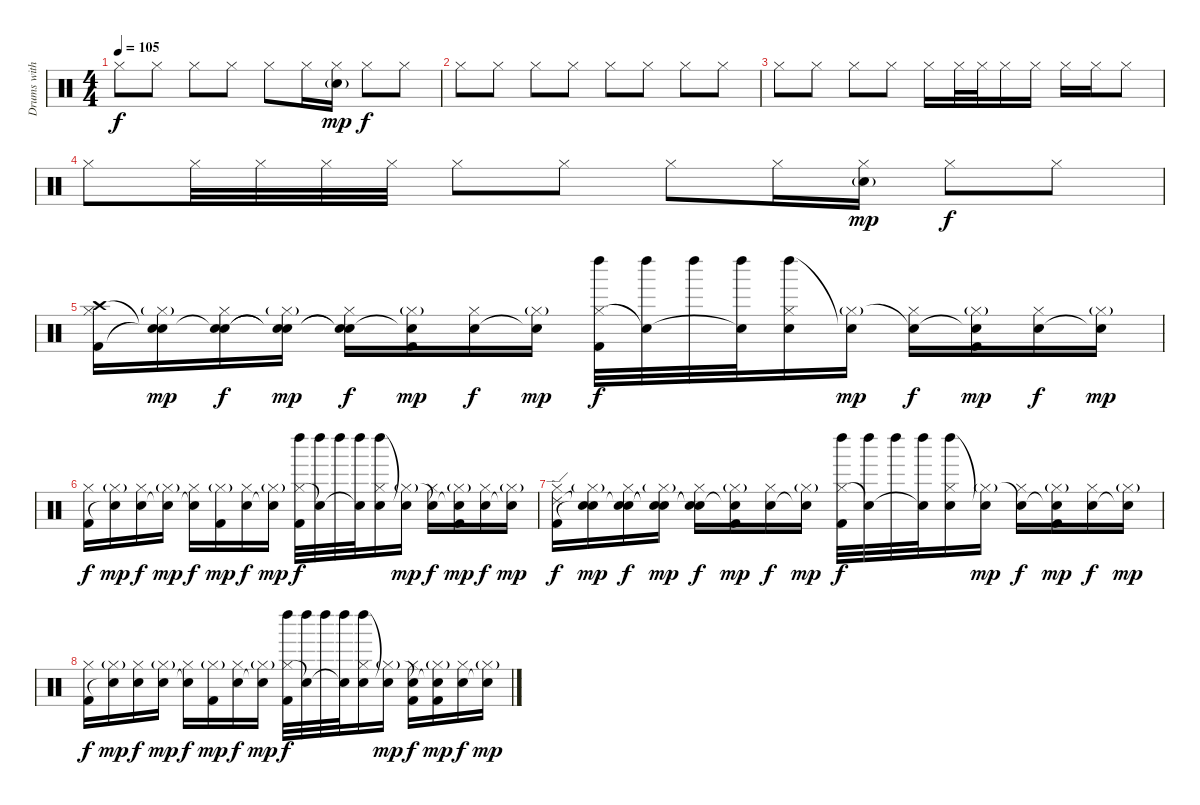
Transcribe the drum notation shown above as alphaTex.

\track ("Drums with sampled drums (Rob and Joe)" "Drums with") {instrument percussion}
\staff {score}
\articulation defaults
\ts (4 4)
\tempo 105
\clef neutral
\ks c "Hi-Hat (closed)".8{dy f} "Hi-Hat (closed)".8 "Hi-Hat (closed)".8 "Hi-Hat (closed)".8 "Hi-Hat (closed)".8 "Hi-Hat (closed)".16
("Metronome (bell)"{g} "Hi-Hat (closed)").16{dy mp} "Hi-Hat (closed)".8{dy f} "Hi-Hat (closed)".8 |
"Hi-Hat (closed)".8 "Hi-Hat (closed)".8 "Hi-Hat (closed)".8 "Hi-Hat (closed)".8 "Hi-Hat (closed)".8 "Hi-Hat (closed)".8 "Hi-Hat (closed)".8 "Hi-Hat (closed)".8 |
"Hi-Hat (closed)".8 "Hi-Hat (closed)".8 "Hi-Hat (closed)".8 "Hi-Hat (closed)".8 "Hi-Hat (closed)".16 "Hi-Hat (closed)".32 "Hi-Hat (closed)".32 "Hi-Hat (closed)".16 "Hi-Hat (closed)".16 "Hi-Hat (closed)".16 "Hi-Hat (closed)".16 "Hi-Hat (closed)".8 |
"Hi-Hat (closed)".8 "Hi-Hat (closed)".32 "Hi-Hat (closed)".32 "Hi-Hat (closed)".32 "Hi-Hat (closed)".32 "Hi-Hat (closed)".8 "Hi-Hat (closed)".8 "Hi-Hat (closed)".8 "Hi-Hat (closed)".16 ("Metronome (bell)"{g} "Hi-Hat (closed)").16{dy mp} "Hi-Hat (closed)".8{dy f} "Hi-Hat (closed)".8 |
("Crash high (hit)" "Hi-Hat (closed)" "Kick (hit) 2").16 ("Snare (hit)"{t} "Hi-Hat (closed)"{g} "Snare (hit)"{t}).16{dy mp} ("Snare (hit)"{t} "Hi-Hat (closed)" "Electric Snare (hit)").16{dy f} ("Snare (hit)"{t} "Hi-Hat (closed)"{g} "Snare (hit)"{t}).16{dy mp} ("Snare (hit)"{t} "Hi-Hat (closed)" "Snare (hit)"{t}).16{dy f} ("Snare (hit)"{t} "Hi-Hat (closed)"{g} "Kick (hit) 2").16{dy mp} ("Hi-Hat (closed)" "Electric Snare (hit)").16{dy f} ("Hi-Hat (closed)"{g} "Snare (hit)"{t}).16{dy mp} ("Left Maraca (hit)" "Hi-Hat (closed)" "Kick (hit) 2").32{dy f} ("Left Maraca (hit)" "Snare (hit)"{t}).32 "Left Maraca (hit)".32 ("Left Maraca (hit)" "Snare (hit)"{t}).32 ("Left Maraca (hit)" "Hi-Hat (closed)" "Electric Snare (hit)").16 ("Snare (hit)"{t} "Hi-Hat (closed)"{g}).16{dy mp} ("Hi-Hat (closed)" "Snare (hit)"{t}).16{dy f} ("Hi-Hat (closed)"{g} "Snare (hit)"{t} "Kick (hit) 2").16{dy mp} ("Hi-Hat (closed)" "Electric Snare (hit)").16{dy f} ("Hi-Hat (closed)"{g} "Snare (hit)"{t}).16{dy mp} |
("Hi-Hat (closed)" "Kick (hit) 2").16{dy f} ("Hi-Hat (closed)"{g} "Snare (hit)"{t}).16{dy mp} ("Hi-Hat (closed)" "Electric Snare (hit)").16{dy f} ("Hi-Hat (closed)"{g} "Snare (hit)"{t}).16{dy mp} ("Hi-Hat (closed)" "Snare (hit)"{t}).16{dy f} ("Hi-Hat (closed)"{g} "Kick (hit) 2").16{dy mp} ("Hi-Hat (closed)" "Electric Snare (hit)").16{dy f} ("Hi-Hat (closed)"{g} "Snare (hit)"{t}).16{dy mp} ("Left Maraca (hit)" "Hi-Hat (closed)" "Kick (hit) 2").32{dy f} ("Left Maraca (hit)" "Snare (hit)"{t}).32 "Left Maraca (hit)".32 ("Left Maraca (hit)" "Snare (hit)"{t}).32 ("Left Maraca (hit)" "Hi-Hat (closed)" "Electric Snare (hit)").16 ("Snare (hit)"{t} "Hi-Hat (closed)"{g}).16{dy mp} ("Hi-Hat (closed)" "Snare (hit)"{t}).16{dy f} ("Hi-Hat (closed)"{g} "Snare (hit)"{t} "Kick (hit) 2").16{dy mp} ("Hi-Hat (closed)" "Electric Snare (hit)").16{dy f} ("Hi-Hat (closed)"{g} "Snare (hit)"{t}).16{dy mp} |
("Ride (edge) 2" "Hi-Hat (closed)" "Kick (hit) 2").16{dy f} ("Snare (hit)"{t} "Hi-Hat (closed)"{g} "Snare (hit)"{t}).16{dy mp} ("Snare (hit)"{t} "Hi-Hat (closed)" "Electric Snare (hit)").16{dy f} ("Snare (hit)"{t} "Hi-Hat (closed)"{g} "Snare (hit)"{t}).16{dy mp} ("Snare (hit)"{t} "Hi-Hat (closed)" "Snare (hit)"{t}).16{dy f} ("Snare (hit)"{t} "Hi-Hat (closed)"{g} "Kick (hit) 2").16{dy mp} ("Hi-Hat (closed)" "Electric Snare (hit)").16{dy f} ("Hi-Hat (closed)"{g} "Snare (hit)"{t}).16{dy mp} ("Left Maraca (hit)" "Hi-Hat (closed)" "Kick (hit) 2").32{dy f} ("Left Maraca (hit)" "Snare (hit)"{t}).32 "Left Maraca (hit)".32 ("Left Maraca (hit)" "Snare (hit)"{t}).32 ("Left Maraca (hit)" "Hi-Hat (closed)" "Electric Snare (hit)").16 ("Snare (hit)"{t} "Hi-Hat (closed)"{g}).16{dy mp} ("Hi-Hat (closed)" "Snare (hit)"{t}).16{dy f} ("Hi-Hat (closed)"{g} "Snare (hit)"{t} "Kick (hit) 2").16{dy mp} ("Hi-Hat (closed)" "Electric Snare (hit)").16{dy f} ("Hi-Hat (closed)"{g} "Snare (hit)"{t}).16{dy mp} |
("Hi-Hat (closed)" "Kick (hit) 2").16{dy f} ("Hi-Hat (closed)"{g} "Snare (hit)"{t}).16{dy mp} ("Hi-Hat (closed)" "Electric Snare (hit)").16{dy f} ("Hi-Hat (closed)"{g} "Electric Snare (hit)").16{dy mp} ("Hi-Hat (closed)" "Snare (hit)"{t}).16{dy f} ("Hi-Hat (closed)"{g} "Kick (hit) 2").16{dy mp} ("Hi-Hat (closed)" "Electric Snare (hit)").16{dy f} ("Hi-Hat (closed)"{g} "Snare (hit)"{t}).16{dy mp} ("Left Maraca (hit)" "Hi-Hat (closed)" "Kick (hit) 2").32{dy f} ("Left Maraca (hit)" "Snare (hit)"{t}).32 "Left Maraca (hit)".32 ("Left Maraca (hit)" "Snare (hit)"{t}).32 ("Left Maraca (hit)" "Hi-Hat (closed)" "Electric Snare (hit)").16 ("Snare (hit)"{t} "Hi-Hat (closed)"{g}).16{dy mp} ("Hi-Hat (closed)" "Snare (hit)"{t} "Kick (hit) 2").16{dy f} ("Hi-Hat (closed)"{g} "Snare (hit)"{t} "Kick (hit) 2").16{dy mp} ("Hi-Hat (closed)" "Electric Snare (hit)").16{dy f} ("Hi-Hat (closed)"{g} "Snare (hit)"{t}).16{dy mp}
